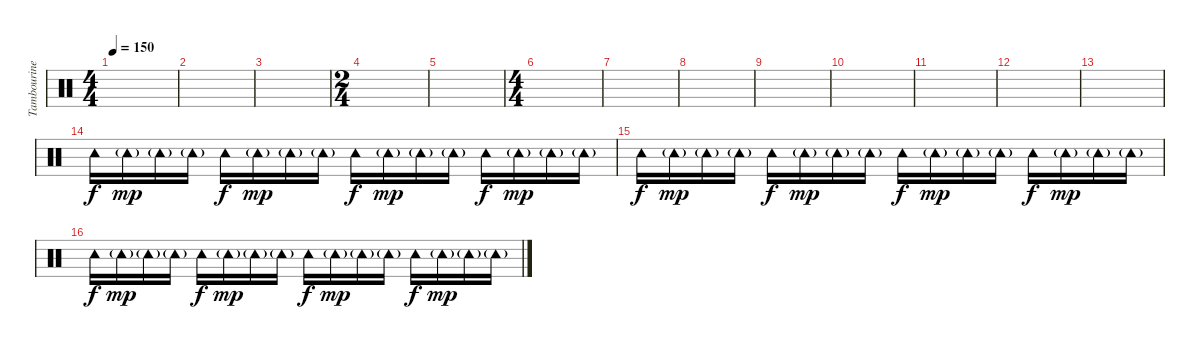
\track ("Tambourine" "Tambourine") {instrument percussion}
\staff {score}
\articulation defaults
\ts (4 4)
\tempo 150
\clef neutral
\ks c
|
|
|
\ts (2 4)
|
|
\ts (4 4)
|
|
|
|
|
|
|
|
"Tambourine (hit)".16{dy f} "Tambourine (hit)"{g}.16{dy mp} "Tambourine (hit)"{g}.16 "Tambourine (hit)"{g}.16 "Tambourine (hit)".16{dy f} "Tambourine (hit)"{g}.16{dy mp} "Tambourine (hit)"{g}.16 "Tambourine (hit)"{g}.16 "Tambourine (hit)".16{dy f} "Tambourine (hit)"{g}.16{dy mp} "Tambourine (hit)"{g}.16 "Tambourine (hit)"{g}.16 "Tambourine (hit)".16{dy f} "Tambourine (hit)"{g}.16{dy mp} "Tambourine (hit)"{g}.16 "Tambourine (hit)"{g}.16 |
"Tambourine (hit)".16{dy f} "Tambourine (hit)"{g}.16{dy mp} "Tambourine (hit)"{g}.16 "Tambourine (hit)"{g}.16 "Tambourine (hit)".16{dy f} "Tambourine (hit)"{g}.16{dy mp} "Tambourine (hit)"{g}.16 "Tambourine (hit)"{g}.16 "Tambourine (hit)".16{dy f} "Tambourine (hit)"{g}.16{dy mp} "Tambourine (hit)"{g}.16 "Tambourine (hit)"{g}.16 "Tambourine (hit)".16{dy f} "Tambourine (hit)"{g}.16{dy mp} "Tambourine (hit)"{g}.16 "Tambourine (hit)"{g}.16 |
"Tambourine (hit)".16{dy f} "Tambourine (hit)"{g}.16{dy mp} "Tambourine (hit)"{g}.16 "Tambourine (hit)"{g}.16 "Tambourine (hit)".16{dy f} "Tambourine (hit)"{g}.16{dy mp} "Tambourine (hit)"{g}.16 "Tambourine (hit)"{g}.16 "Tambourine (hit)".16{dy f} "Tambourine (hit)"{g}.16{dy mp} "Tambourine (hit)"{g}.16 "Tambourine (hit)"{g}.16 "Tambourine (hit)".16{dy f} "Tambourine (hit)"{g}.16{dy mp} "Tambourine (hit)"{g}.16 "Tambourine (hit)"{g}.16
